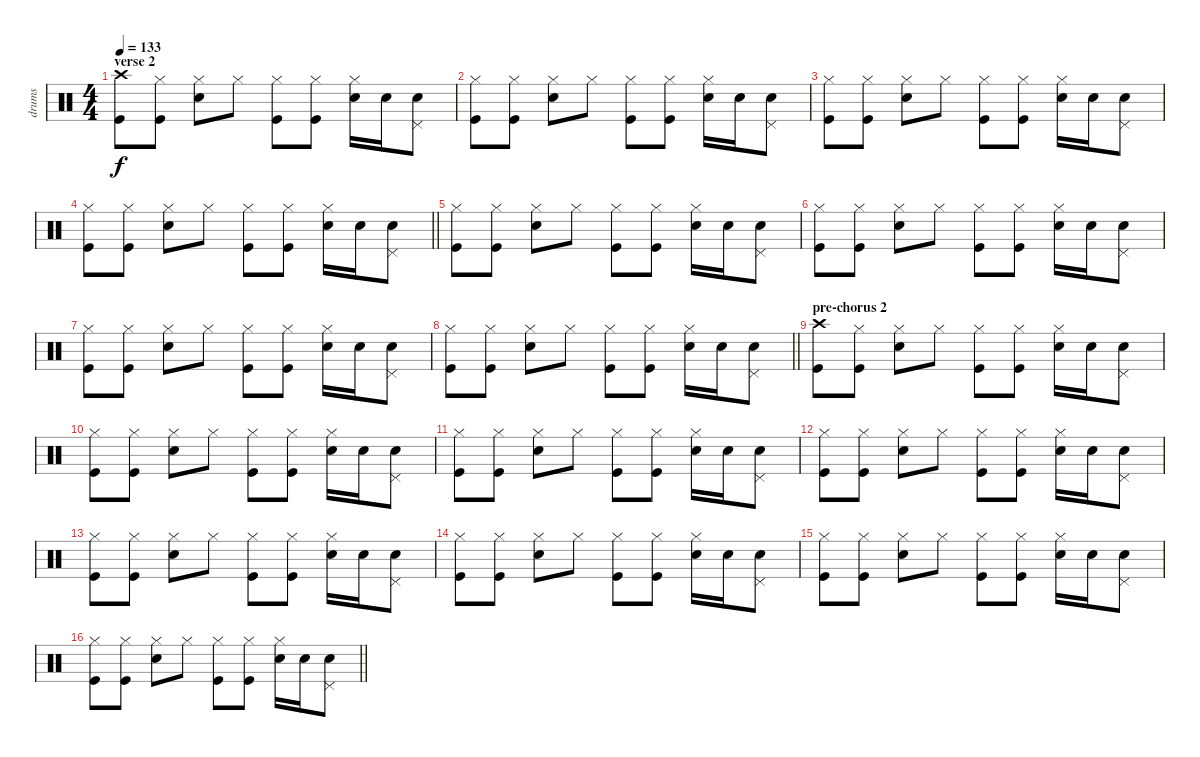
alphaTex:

\track ("drums" "drums") {instrument percussion}
\staff {score}
\articulation defaults
\ts (4 4)
\section ("" "verse 2")
\tempo 133
\clef neutral
\ks c
("Kick (hit)" "Crash high (hit)").8{dy f} ("Kick (hit)" "Hi-Hat (closed)").8 ("Electric Snare (hit)" "Hi-Hat (closed)").8 "Hi-Hat (closed)".8 ("Kick (hit)" "Hi-Hat (closed)").8 ("Kick (hit)" "Hi-Hat (closed)").8 ("Electric Snare (hit)" "Hi-Hat (closed)").16 "Electric Snare (hit)".16 ("Electric Snare (hit)" "Pedal Hi-Hat (hit)").8 |
("Kick (hit)" "Hi-Hat (closed)").8 ("Kick (hit)" "Hi-Hat (closed)").8 ("Electric Snare (hit)" "Hi-Hat (closed)").8 "Hi-Hat (closed)".8 ("Kick (hit)" "Hi-Hat (closed)").8 ("Kick (hit)" "Hi-Hat (closed)").8 ("Electric Snare (hit)" "Hi-Hat (closed)").16 "Electric Snare (hit)".16 ("Electric Snare (hit)" "Pedal Hi-Hat (hit)").8 |
("Kick (hit)" "Hi-Hat (closed)").8 ("Kick (hit)" "Hi-Hat (closed)").8 ("Electric Snare (hit)" "Hi-Hat (closed)").8 "Hi-Hat (closed)".8 ("Kick (hit)" "Hi-Hat (closed)").8 ("Kick (hit)" "Hi-Hat (closed)").8 ("Electric Snare (hit)" "Hi-Hat (closed)").16 "Electric Snare (hit)".16 ("Electric Snare (hit)" "Pedal Hi-Hat (hit)").8 |
\barLineRight lightlight
("Kick (hit)" "Hi-Hat (closed)").8 ("Kick (hit)" "Hi-Hat (closed)").8 ("Electric Snare (hit)" "Hi-Hat (closed)").8 "Hi-Hat (closed)".8 ("Kick (hit)" "Hi-Hat (closed)").8 ("Kick (hit)" "Hi-Hat (closed)").8 ("Electric Snare (hit)" "Hi-Hat (closed)").16 "Electric Snare (hit)".16 ("Electric Snare (hit)" "Pedal Hi-Hat (hit)").8 |
("Kick (hit)" "Hi-Hat (closed)").8 ("Kick (hit)" "Hi-Hat (closed)").8 ("Electric Snare (hit)" "Hi-Hat (closed)").8 "Hi-Hat (closed)".8 ("Kick (hit)" "Hi-Hat (closed)").8 ("Kick (hit)" "Hi-Hat (closed)").8 ("Electric Snare (hit)" "Hi-Hat (closed)").16 "Electric Snare (hit)".16 ("Electric Snare (hit)" "Pedal Hi-Hat (hit)").8 |
("Kick (hit)" "Hi-Hat (closed)").8 ("Kick (hit)" "Hi-Hat (closed)").8 ("Electric Snare (hit)" "Hi-Hat (closed)").8 "Hi-Hat (closed)".8 ("Kick (hit)" "Hi-Hat (closed)").8 ("Kick (hit)" "Hi-Hat (closed)").8 ("Electric Snare (hit)" "Hi-Hat (closed)").16 "Electric Snare (hit)".16 ("Electric Snare (hit)" "Pedal Hi-Hat (hit)").8 |
("Kick (hit)" "Hi-Hat (closed)").8 ("Kick (hit)" "Hi-Hat (closed)").8 ("Electric Snare (hit)" "Hi-Hat (closed)").8 "Hi-Hat (closed)".8 ("Kick (hit)" "Hi-Hat (closed)").8 ("Kick (hit)" "Hi-Hat (closed)").8 ("Electric Snare (hit)" "Hi-Hat (closed)").16 "Electric Snare (hit)".16 ("Electric Snare (hit)" "Pedal Hi-Hat (hit)").8 |
\barLineRight lightlight
("Kick (hit)" "Hi-Hat (closed)").8 ("Kick (hit)" "Hi-Hat (closed)").8 ("Electric Snare (hit)" "Hi-Hat (closed)").8 "Hi-Hat (closed)".8 ("Kick (hit)" "Hi-Hat (closed)").8 ("Kick (hit)" "Hi-Hat (closed)").8 ("Electric Snare (hit)" "Hi-Hat (closed)").16 "Electric Snare (hit)".16 ("Electric Snare (hit)" "Pedal Hi-Hat (hit)").8 |
\section ("" "pre-chorus 2")
("Kick (hit)" "Crash high (hit)").8 ("Kick (hit)" "Hi-Hat (closed)").8 ("Electric Snare (hit)" "Hi-Hat (closed)").8 "Hi-Hat (closed)".8 ("Kick (hit)" "Hi-Hat (closed)").8 ("Kick (hit)" "Hi-Hat (closed)").8 ("Electric Snare (hit)" "Hi-Hat (closed)").16 "Electric Snare (hit)".16 ("Electric Snare (hit)" "Pedal Hi-Hat (hit)").8 |
("Kick (hit)" "Hi-Hat (closed)").8 ("Kick (hit)" "Hi-Hat (closed)").8 ("Electric Snare (hit)" "Hi-Hat (closed)").8 "Hi-Hat (closed)".8 ("Kick (hit)" "Hi-Hat (closed)").8 ("Kick (hit)" "Hi-Hat (closed)").8 ("Electric Snare (hit)" "Hi-Hat (closed)").16 "Electric Snare (hit)".16 ("Electric Snare (hit)" "Pedal Hi-Hat (hit)").8 |
("Kick (hit)" "Hi-Hat (closed)").8 ("Kick (hit)" "Hi-Hat (closed)").8 ("Electric Snare (hit)" "Hi-Hat (closed)").8 "Hi-Hat (closed)".8 ("Kick (hit)" "Hi-Hat (closed)").8 ("Kick (hit)" "Hi-Hat (closed)").8 ("Electric Snare (hit)" "Hi-Hat (closed)").16 "Electric Snare (hit)".16 ("Electric Snare (hit)" "Pedal Hi-Hat (hit)").8 |
("Kick (hit)" "Hi-Hat (closed)").8 ("Kick (hit)" "Hi-Hat (closed)").8 ("Electric Snare (hit)" "Hi-Hat (closed)").8 "Hi-Hat (closed)".8 ("Kick (hit)" "Hi-Hat (closed)").8 ("Kick (hit)" "Hi-Hat (closed)").8 ("Electric Snare (hit)" "Hi-Hat (closed)").16 "Electric Snare (hit)".16 ("Electric Snare (hit)" "Pedal Hi-Hat (hit)").8 |
("Kick (hit)" "Hi-Hat (closed)").8 ("Kick (hit)" "Hi-Hat (closed)").8 ("Electric Snare (hit)" "Hi-Hat (closed)").8 "Hi-Hat (closed)".8 ("Kick (hit)" "Hi-Hat (closed)").8 ("Kick (hit)" "Hi-Hat (closed)").8 ("Electric Snare (hit)" "Hi-Hat (closed)").16 "Electric Snare (hit)".16 ("Electric Snare (hit)" "Pedal Hi-Hat (hit)").8 |
("Kick (hit)" "Hi-Hat (closed)").8 ("Kick (hit)" "Hi-Hat (closed)").8 ("Electric Snare (hit)" "Hi-Hat (closed)").8 "Hi-Hat (closed)".8 ("Kick (hit)" "Hi-Hat (closed)").8 ("Kick (hit)" "Hi-Hat (closed)").8 ("Electric Snare (hit)" "Hi-Hat (closed)").16 "Electric Snare (hit)".16 ("Electric Snare (hit)" "Pedal Hi-Hat (hit)").8 |
("Kick (hit)" "Hi-Hat (closed)").8 ("Kick (hit)" "Hi-Hat (closed)").8 ("Electric Snare (hit)" "Hi-Hat (closed)").8 "Hi-Hat (closed)".8 ("Kick (hit)" "Hi-Hat (closed)").8 ("Kick (hit)" "Hi-Hat (closed)").8 ("Electric Snare (hit)" "Hi-Hat (closed)").16 "Electric Snare (hit)".16 ("Electric Snare (hit)" "Pedal Hi-Hat (hit)").8 |
\barLineRight lightlight
("Kick (hit)" "Hi-Hat (closed)").8 ("Kick (hit)" "Hi-Hat (closed)").8 ("Electric Snare (hit)" "Hi-Hat (closed)").8 "Hi-Hat (closed)".8 ("Kick (hit)" "Hi-Hat (closed)").8 ("Kick (hit)" "Hi-Hat (closed)").8 ("Electric Snare (hit)" "Hi-Hat (closed)").16 "Electric Snare (hit)".16 ("Electric Snare (hit)" "Pedal Hi-Hat (hit)").8
